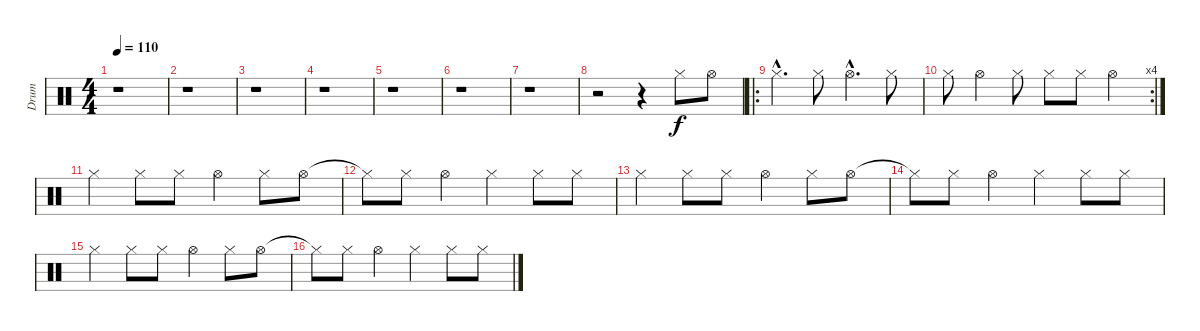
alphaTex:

\track ("Drum" "Drum") {instrument percussion}
\staff {score}
\articulation defaults
\ts (4 4)
\tempo 110
\clef neutral
\ks c
r.1{dy f} |
r.1 |
r.1 |
r.1 |
r.1 |
r.1 |
r.1 |
r.2 r.4 "Hi-Hat (closed)".8 "Hi-Hat (open)".8 |
\ro "Hi-Hat (closed)"{hac}.4{d} "Hi-Hat (closed)".8 "Hi-Hat (open)"{hac}.4{d} "Hi-Hat (closed)".8
|
\rc 4 "Hi-Hat (closed)".8 "Hi-Hat (open)".4 "Hi-Hat (closed)".8 "Hi-Hat (closed)".8 "Hi-Hat (closed)".8 "Hi-Hat (open)".4
|
"Hi-Hat (closed)".4 "Hi-Hat (closed)".8 "Hi-Hat (closed)".8 "Hi-Hat (open)".4 "Hi-Hat (closed)".8 "Hi-Hat (open)".8 |
"Hi-Hat (closed)"{t}.8 "Hi-Hat (closed)".8 "Hi-Hat (open)".4 "Hi-Hat (closed)".4 "Hi-Hat (closed)".8 "Hi-Hat (closed)".8 |
"Hi-Hat (closed)".4 "Hi-Hat (closed)".8 "Hi-Hat (closed)".8 "Hi-Hat (open)".4 "Hi-Hat (closed)".8 "Hi-Hat (open)".8 |
"Hi-Hat (closed)"{t}.8 "Hi-Hat (closed)".8 "Hi-Hat (open)".4 "Hi-Hat (closed)".4 "Hi-Hat (closed)".8 "Hi-Hat (closed)".8 |
"Hi-Hat (closed)".4 "Hi-Hat (closed)".8 "Hi-Hat (closed)".8 "Hi-Hat (open)".4 "Hi-Hat (closed)".8 "Hi-Hat (open)".8 |
"Hi-Hat (closed)"{t}.8 "Hi-Hat (closed)".8 "Hi-Hat (open)".4 "Hi-Hat (closed)".4 "Hi-Hat (closed)".8 "Hi-Hat (closed)".8
